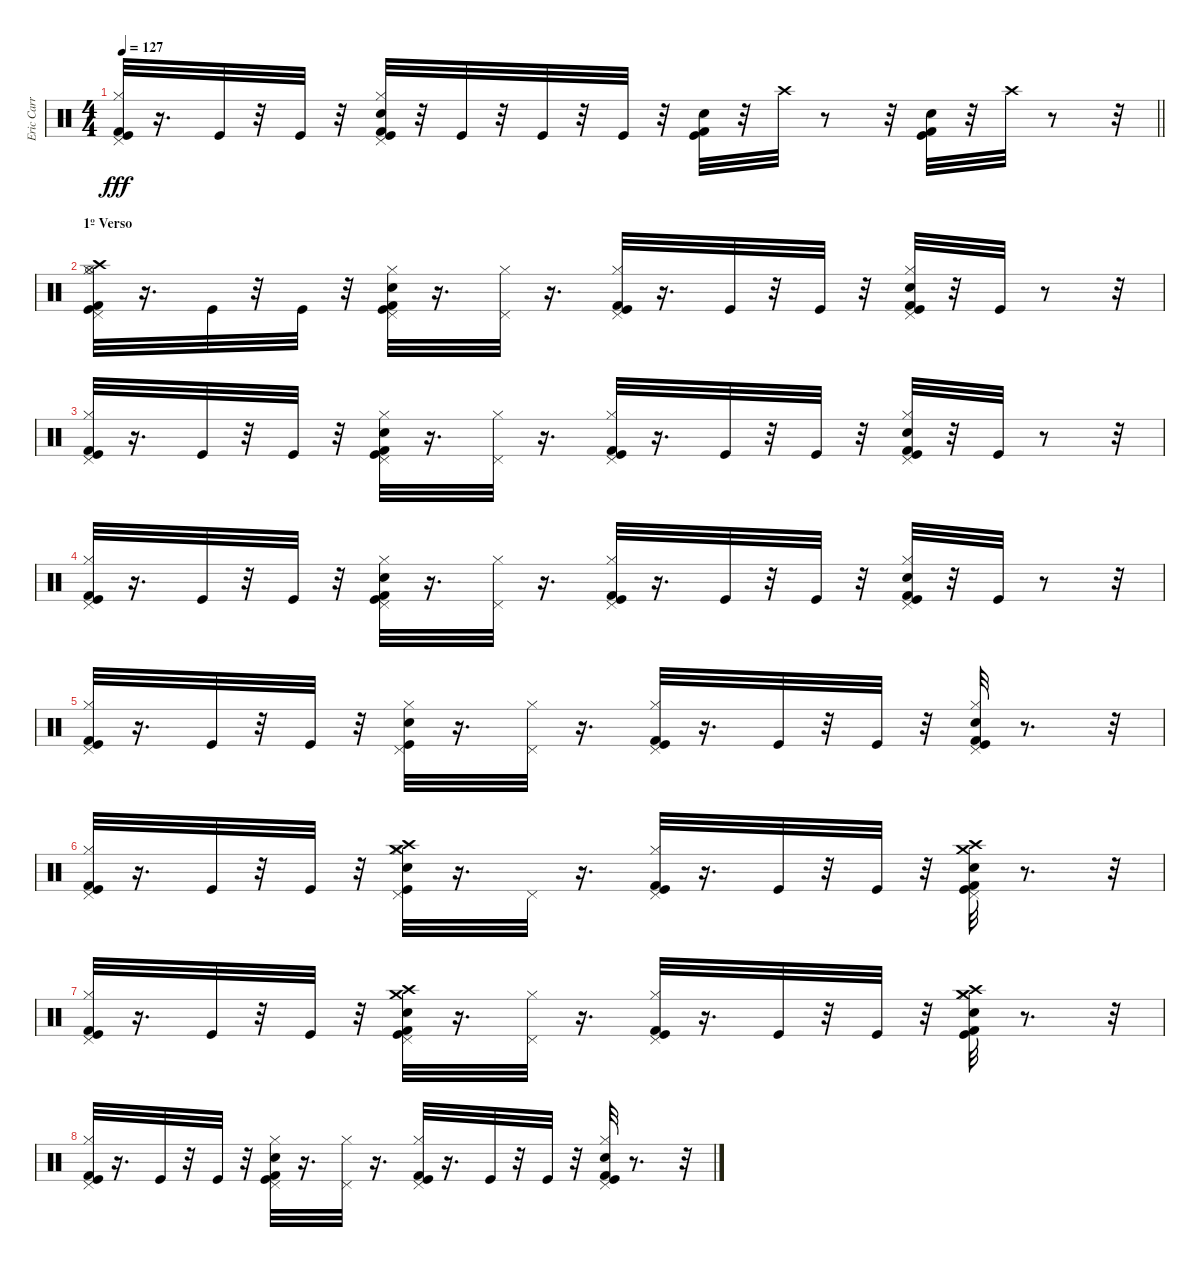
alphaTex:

\track ("Eric Carr - Bateria" "Eric Carr ") {instrument percussion}
\staff {score}
\articulation defaults
\ts (4 4)
\tempo 127
\clef neutral
\barLineRight lightlight
\ks c
("Kick (hit) 2" "Kick (hit)" "Hi-Hat (closed)" "Pedal Hi-Hat (hit)").32{dy fff} r.16{d} "Kick (hit)".32 r.32 "Kick (hit)".32 r.32 ("Kick (hit)" "Kick (hit) 2" "Snare (hit) 2" "Hi-Hat (closed)" "Pedal Hi-Hat (hit)").32 r.32 "Kick (hit)".32 r.32 "Kick (hit)".32 r.32 "Kick (hit)".32 r.32 ("Kick (hit) 2" "Kick (hit)" "Snare (hit) 2").32 r.32 "Crash high (hit)".32 r.8 r.32 ("Kick (hit) 2" "Kick (hit)" "Snare (hit) 2").32 r.32 "Crash high (hit)".32 r.8 r.32 |
\section ("" "1º Verso")
("Hi-Hat (closed)" "Pedal Hi-Hat (hit)" "Hi-Hat (open)" "Kick (hit) 2" "Kick (hit)" "Crash high (hit)").32 r.16{d} "Kick (hit)".32 r.32 "Kick (hit)".32 r.32 ("Hi-Hat (closed)" "Kick (hit) 2" "Kick (hit)" "Snare (hit) 2" "Pedal Hi-Hat (hit)").32 r.16{d} ("Hi-Hat (closed)" "Pedal Hi-Hat (hit)").32 r.16{d} ("Hi-Hat (closed)" "Pedal Hi-Hat (hit)" "Kick (hit) 2" "Kick (hit)").32 r.16{d} "Kick (hit)".32 r.32 "Kick (hit)".32 r.32 ("Hi-Hat (closed)" "Pedal Hi-Hat (hit)" "Snare (hit) 2" "Kick (hit)" "Kick (hit) 2").32 r.32 "Kick (hit)".32 r.8 r.32 |
("Hi-Hat (closed)" "Pedal Hi-Hat (hit)" "Kick (hit) 2" "Kick (hit)").32 r.16{d} "Kick (hit)".32 r.32 "Kick (hit)".32 r.32 ("Hi-Hat (closed)" "Pedal Hi-Hat (hit)" "Snare (hit) 2" "Kick (hit) 2" "Kick (hit)").32 r.16{d} ("Hi-Hat (closed)" "Pedal Hi-Hat (hit)").32 r.16{d} ("Hi-Hat (closed)" "Pedal Hi-Hat (hit)" "Kick (hit)" "Kick (hit) 2").32 r.16{d} "Kick (hit)".32 r.32 "Kick (hit)".32 r.32 ("Hi-Hat (closed)" "Pedal Hi-Hat (hit)" "Kick (hit)" "Snare (hit) 2" "Kick (hit) 2").32 r.32 "Kick (hit)".32 r.8 r.32 |
("Pedal Hi-Hat (hit)" "Hi-Hat (closed)" "Kick (hit) 2" "Kick (hit)").32 r.16{d} "Kick (hit)".32 r.32 "Kick (hit)".32 r.32 ("Hi-Hat (closed)" "Pedal Hi-Hat (hit)" "Kick (hit) 2" "Snare (hit) 2" "Kick (hit)").32 r.16{d} ("Hi-Hat (closed)" "Pedal Hi-Hat (hit)").32 r.16{d} ("Kick (hit) 2" "Kick (hit)" "Hi-Hat (closed)" "Pedal Hi-Hat (hit)").32 r.16{d} "Kick (hit)".32 r.32 "Kick (hit)".32 r.32 ("Snare (hit) 2" "Kick (hit)" "Kick (hit) 2" "Hi-Hat (closed)" "Pedal Hi-Hat (hit)").32 r.32 "Kick (hit)".32 r.8 r.32 |
("Kick (hit) 2" "Kick (hit)" "Hi-Hat (closed)" "Pedal Hi-Hat (hit)").32 r.16{d} "Kick (hit)".32 r.32 "Kick (hit)".32 r.32 ("Kick (hit)" "Snare (hit) 2" "Hi-Hat (closed)" "Pedal Hi-Hat (hit)").32 r.16{d} ("Hi-Hat (closed)" "Pedal Hi-Hat (hit)").32 r.16{d} ("Hi-Hat (closed)" "Pedal Hi-Hat (hit)" "Kick (hit) 2" "Kick (hit)").32 r.16{d} "Kick (hit)".32 r.32 "Kick (hit)".32 r.32 ("Hi-Hat (closed)" "Pedal Hi-Hat (hit)" "Kick (hit)" "Kick (hit) 2" "Snare (hit) 2").32 r.8{d} r.32 |
("Kick (hit) 2" "Kick (hit)" "Hi-Hat (closed)" "Pedal Hi-Hat (hit)").32 r.16{d} "Kick (hit)".32 r.32 "Kick (hit)".32 r.32 ("Crash medium (hit)" "Crash high (hit)" "Snare (hit) 2" "Hi-Hat (closed)" "Pedal Hi-Hat (hit)" "Kick (hit)").32 r.16{d} "Pedal Hi-Hat (hit)".32 r.16{d} ("Hi-Hat (closed)" "Pedal Hi-Hat (hit)" "Kick (hit) 2" "Kick (hit)").32 r.16{d} "Kick (hit)".32 r.32 "Kick (hit)".32 r.32 ("Crash medium (hit)" "Crash high (hit)" "Pedal Hi-Hat (hit)" "Kick (hit)" "Kick (hit) 2" "Snare (hit) 2").32 r.8{d} r.32 |
("Kick (hit)" "Kick (hit) 2" "Hi-Hat (closed)" "Pedal Hi-Hat (hit)").32 r.16{d} "Kick (hit)".32 r.32 "Kick (hit)".32 r.32 ("Crash high (hit)" "Crash medium (hit)" "Pedal Hi-Hat (hit)" "Kick (hit) 2" "Kick (hit)" "Snare (hit) 2").32 r.16{d} ("Pedal Hi-Hat (hit)" "Hi-Hat (closed)").32 r.16{d} ("Kick (hit)" "Kick (hit) 2" "Hi-Hat (closed)" "Pedal Hi-Hat (hit)").32 r.16{d} "Kick (hit)".32 r.32 "Kick (hit)".32 r.32 ("Crash medium (hit)" "Crash high (hit)" "Snare (hit) 2" "Kick (hit) 2" "Kick (hit)" "Hi-Hat (closed)").32 r.8{d} r.32 |
("Kick (hit) 2" "Hi-Hat (closed)" "Pedal Hi-Hat (hit)" "Kick (hit)").32 r.16{d} "Kick (hit)".32 r.32 "Kick (hit)".32 r.32 ("Kick (hit)" "Snare (hit) 2" "Hi-Hat (closed)" "Kick (hit) 2" "Pedal Hi-Hat (hit)").32 r.16{d} ("Hi-Hat (closed)" "Pedal Hi-Hat (hit)").32 r.16{d} ("Kick (hit)" "Pedal Hi-Hat (hit)" "Hi-Hat (closed)" "Kick (hit) 2").32 r.16{d} "Kick (hit)".32 r.32 "Kick (hit)".32 r.32 ("Hi-Hat (closed)" "Snare (hit) 2" "Kick (hit)" "Pedal Hi-Hat (hit)" "Kick (hit) 2").32 r.8{d} r.32
